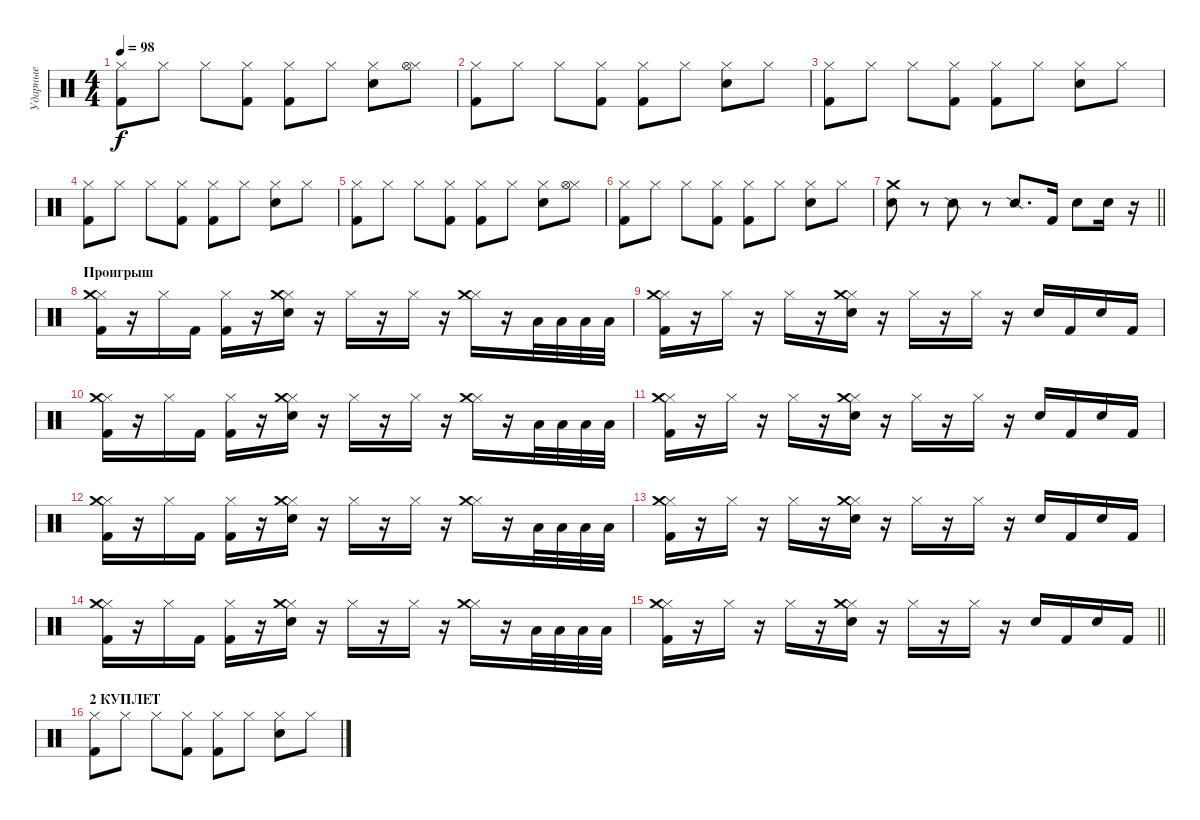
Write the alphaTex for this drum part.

\track ("Ударные" "Ударные") {instrument percussion}
\staff {score}
\articulation defaults
\ts (4 4)
\tempo 98
\clef neutral
\ks c
("Hi-Hat (closed)" "Kick (hit) 2").8{dy f} "Hi-Hat (closed)".8 "Hi-Hat (closed)".8 ("Hi-Hat (closed)" "Kick (hit) 2").8 ("Hi-Hat (closed)" "Kick (hit) 2").8 "Hi-Hat (closed)".8 ("Hi-Hat (closed)" "Snare (hit) 2").8 ("Hi-Hat (closed)" "Hi-Hat (open)").8 |
("Hi-Hat (closed)" "Kick (hit) 2").8 "Hi-Hat (closed)".8 "Hi-Hat (closed)".8 ("Hi-Hat (closed)" "Kick (hit) 2").8 ("Hi-Hat (closed)" "Kick (hit) 2").8 "Hi-Hat (closed)".8 ("Hi-Hat (closed)" "Snare (hit) 2").8 "Hi-Hat (closed)".8 |
("Hi-Hat (closed)" "Kick (hit) 2").8 "Hi-Hat (closed)".8 "Hi-Hat (closed)".8 ("Hi-Hat (closed)" "Kick (hit) 2").8 ("Hi-Hat (closed)" "Kick (hit) 2").8 "Hi-Hat (closed)".8 ("Hi-Hat (closed)" "Snare (hit) 2").8 "Hi-Hat (closed)".8 |
("Hi-Hat (closed)" "Kick (hit) 2").8 "Hi-Hat (closed)".8 "Hi-Hat (closed)".8 ("Hi-Hat (closed)" "Kick (hit) 2").8 ("Hi-Hat (closed)" "Kick (hit) 2").8 "Hi-Hat (closed)".8 ("Hi-Hat (closed)" "Snare (hit) 2").8 "Hi-Hat (closed)".8 |
("Hi-Hat (closed)" "Kick (hit) 2").8 "Hi-Hat (closed)".8 "Hi-Hat (closed)".8 ("Hi-Hat (closed)" "Kick (hit) 2").8 ("Hi-Hat (closed)" "Kick (hit) 2").8 "Hi-Hat (closed)".8 ("Hi-Hat (closed)" "Snare (hit) 2").8 ("Hi-Hat (closed)" "Hi-Hat (open)").8 |
("Hi-Hat (closed)" "Kick (hit) 2").8 "Hi-Hat (closed)".8 "Hi-Hat (closed)".8 ("Hi-Hat (closed)" "Kick (hit) 2").8 ("Hi-Hat (closed)" "Kick (hit) 2").8 "Hi-Hat (closed)".8 ("Hi-Hat (closed)" "Snare (hit) 2").8 "Hi-Hat (closed)".8 |
\barLineRight lightlight
("Crash medium (hit)" "Snare (hit) 2").8 r.8 "Snare (side stick) 2".8 r.8 "Snare (side stick) 2".8{d} "Kick (hit) 2".16 "Snare (hit) 2".8 "Snare (hit) 2".16 r.16 |
\section ("" "Проигрыш")
("Hi-Hat (closed)" "Kick (hit) 2" "Crash medium (hit)").16 r.16 "Hi-Hat (closed)".16 "Kick (hit) 2".16 ("Hi-Hat (closed)" "Kick (hit) 2").16 r.16 ("Hi-Hat (closed)" "Snare (hit) 2" "Crash medium (hit)").16 r.16 "Hi-Hat (closed)".16 r.16 "Hi-Hat (closed)".16 r.16 ("Hi-Hat (closed)" "Crash medium (hit)").16 r.16 "Low Tom (hit)".32 "Low Tom (hit)".32 "Low Tom (hit)".32 "Low Tom (hit)".32 |
("Hi-Hat (closed)" "Kick (hit) 2" "Crash medium (hit)").16 r.16 "Hi-Hat (closed)".16 r.16 "Hi-Hat (closed)".16 r.16 ("Hi-Hat (closed)" "Snare (hit) 2" "Crash medium (hit)").16 r.16 "Hi-Hat (closed)".16 r.16 "Hi-Hat (closed)".16 r.16 "Snare (hit) 2".16 "Kick (hit) 2".16 "Snare (hit) 2".16 "Kick (hit) 2".16 |
("Hi-Hat (closed)" "Kick (hit) 2" "Crash medium (hit)").16 r.16 "Hi-Hat (closed)".16 "Kick (hit) 2".16 ("Hi-Hat (closed)" "Kick (hit) 2").16 r.16 ("Hi-Hat (closed)" "Snare (hit) 2" "Crash medium (hit)").16 r.16 "Hi-Hat (closed)".16 r.16 "Hi-Hat (closed)".16 r.16 ("Hi-Hat (closed)" "Crash medium (hit)").16 r.16 "Low Tom (hit)".32 "Low Tom (hit)".32 "Low Tom (hit)".32 "Low Tom (hit)".32 |
("Hi-Hat (closed)" "Kick (hit) 2" "Crash medium (hit)").16 r.16 "Hi-Hat (closed)".16 r.16 "Hi-Hat (closed)".16 r.16 ("Hi-Hat (closed)" "Snare (hit) 2" "Crash medium (hit)").16 r.16 "Hi-Hat (closed)".16 r.16 "Hi-Hat (closed)".16 r.16 "Snare (hit) 2".16 "Kick (hit) 2".16 "Snare (hit) 2".16 "Kick (hit) 2".16 |
("Hi-Hat (closed)" "Kick (hit) 2" "Crash medium (hit)").16 r.16 "Hi-Hat (closed)".16 "Kick (hit) 2".16 ("Hi-Hat (closed)" "Kick (hit) 2").16 r.16 ("Hi-Hat (closed)" "Snare (hit) 2" "Crash medium (hit)").16 r.16 "Hi-Hat (closed)".16 r.16 "Hi-Hat (closed)".16 r.16 ("Hi-Hat (closed)" "Crash medium (hit)").16 r.16 "Low Tom (hit)".32 "Low Tom (hit)".32 "Low Tom (hit)".32 "Low Tom (hit)".32 |
("Hi-Hat (closed)" "Kick (hit) 2" "Crash medium (hit)").16 r.16 "Hi-Hat (closed)".16 r.16 "Hi-Hat (closed)".16 r.16 ("Hi-Hat (closed)" "Snare (hit) 2" "Crash medium (hit)").16 r.16 "Hi-Hat (closed)".16 r.16 "Hi-Hat (closed)".16 r.16 "Snare (hit) 2".16 "Kick (hit) 2".16 "Snare (hit) 2".16 "Kick (hit) 2".16 |
("Hi-Hat (closed)" "Kick (hit) 2" "Crash medium (hit)").16 r.16 "Hi-Hat (closed)".16 "Kick (hit) 2".16 ("Hi-Hat (closed)" "Kick (hit) 2").16 r.16 ("Hi-Hat (closed)" "Snare (hit) 2" "Crash medium (hit)").16 r.16 "Hi-Hat (closed)".16 r.16 "Hi-Hat (closed)".16 r.16 ("Hi-Hat (closed)" "Crash medium (hit)").16 r.16 "Low Tom (hit)".32 "Low Tom (hit)".32 "Low Tom (hit)".32 "Low Tom (hit)".32 |
\barLineRight lightlight
("Hi-Hat (closed)" "Kick (hit) 2" "Crash medium (hit)").16 r.16 "Hi-Hat (closed)".16 r.16 "Hi-Hat (closed)".16 r.16 ("Hi-Hat (closed)" "Snare (hit) 2" "Crash medium (hit)").16 r.16 "Hi-Hat (closed)".16 r.16 "Hi-Hat (closed)".16 r.16 "Snare (hit) 2".16 "Kick (hit) 2".16 "Snare (hit) 2".16 "Kick (hit) 2".16 |
\section ("" "2 КУПЛЕТ")
("Hi-Hat (closed)" "Kick (hit) 2").8 "Hi-Hat (closed)".8 "Hi-Hat (closed)".8 ("Hi-Hat (closed)" "Kick (hit) 2").8 ("Hi-Hat (closed)" "Kick (hit) 2").8 "Hi-Hat (closed)".8 ("Hi-Hat (closed)" "Snare (hit) 2").8 "Hi-Hat (closed)".8
